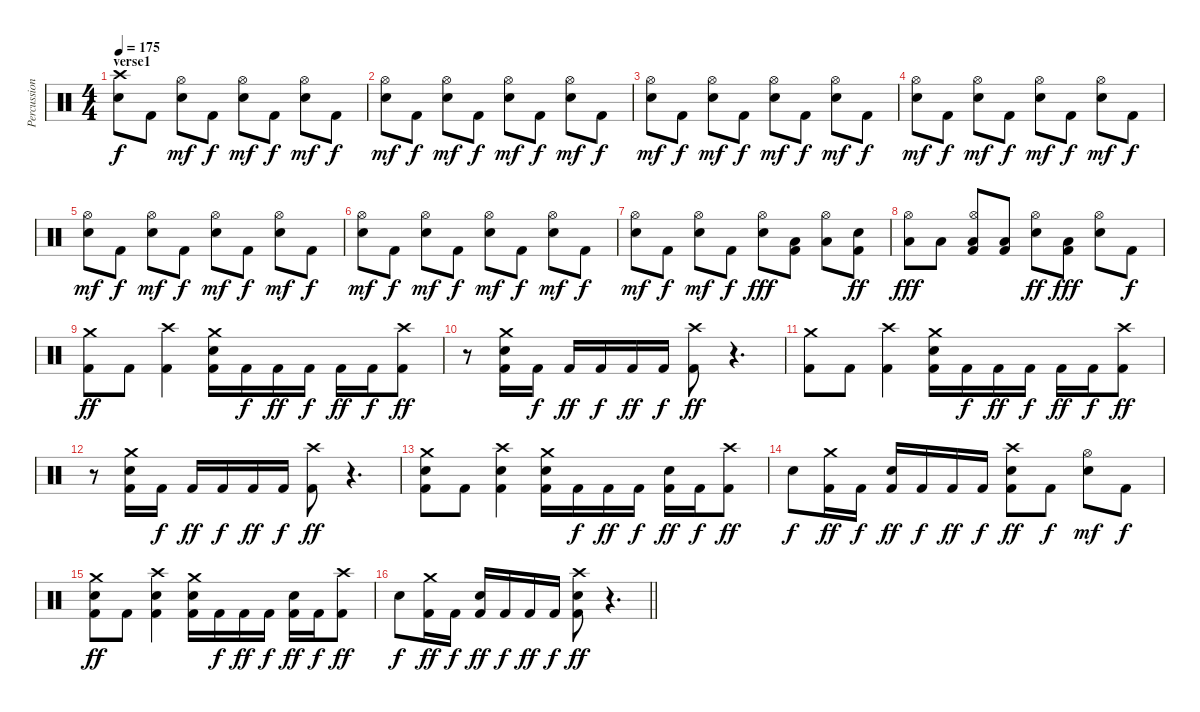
\track ("Percussion" "Percussion") {instrument percussion}
\staff {score}
\articulation defaults
\ts (4 4)
\section ("" "verse1")
\tempo 175
\clef neutral
\ks c
("Crash high (hit)" "Electric Snare (hit)").8{dy f} "Kick (hit) 2".8 ("Hi-Hat (open)" "Electric Snare (hit)").8{dy mf} "Kick (hit) 2".8{dy f} ("Hi-Hat (open)" "Electric Snare (hit)").8{dy mf} "Kick (hit) 2".8{dy f} ("Hi-Hat (open)" "Electric Snare (hit)").8{dy mf} "Kick (hit) 2".8{dy f} |
("Hi-Hat (open)" "Electric Snare (hit)").8{dy mf} "Kick (hit) 2".8{dy f} ("Hi-Hat (open)" "Electric Snare (hit)").8{dy mf} "Kick (hit) 2".8{dy f} ("Hi-Hat (open)" "Electric Snare (hit)").8{dy mf} "Kick (hit) 2".8{dy f} ("Hi-Hat (open)" "Electric Snare (hit)").8{dy mf} "Kick (hit) 2".8{dy f} |
("Hi-Hat (open)" "Electric Snare (hit)").8{dy mf} "Kick (hit) 2".8{dy f} ("Hi-Hat (open)" "Electric Snare (hit)").8{dy mf} "Kick (hit) 2".8{dy f} ("Hi-Hat (open)" "Electric Snare (hit)").8{dy mf} "Kick (hit) 2".8{dy f} ("Hi-Hat (open)" "Electric Snare (hit)").8{dy mf} "Kick (hit) 2".8{dy f} |
("Hi-Hat (open)" "Electric Snare (hit)").8{dy mf} "Kick (hit) 2".8{dy f} ("Hi-Hat (open)" "Electric Snare (hit)").8{dy mf} "Kick (hit) 2".8{dy f} ("Hi-Hat (open)" "Electric Snare (hit)").8{dy mf} "Kick (hit) 2".8{dy f} ("Hi-Hat (open)" "Electric Snare (hit)").8{dy mf} "Kick (hit) 2".8{dy f} |
("Hi-Hat (open)" "Electric Snare (hit)").8{dy mf} "Kick (hit) 2".8{dy f} ("Hi-Hat (open)" "Electric Snare (hit)").8{dy mf} "Kick (hit) 2".8{dy f} ("Hi-Hat (open)" "Electric Snare (hit)").8{dy mf} "Kick (hit) 2".8{dy f} ("Hi-Hat (open)" "Electric Snare (hit)").8{dy mf} "Kick (hit) 2".8{dy f} |
("Hi-Hat (open)" "Electric Snare (hit)").8{dy mf} "Kick (hit) 2".8{dy f} ("Hi-Hat (open)" "Electric Snare (hit)").8{dy mf} "Kick (hit) 2".8{dy f} ("Hi-Hat (open)" "Electric Snare (hit)").8{dy mf} "Kick (hit) 2".8{dy f} ("Hi-Hat (open)" "Electric Snare (hit)").8{dy mf} "Kick (hit) 2".8{dy f} |
("Hi-Hat (open)" "Electric Snare (hit)").8{dy mf} "Kick (hit) 2".8{dy f} ("Hi-Hat (open)" "Electric Snare (hit)").8{dy mf} "Kick (hit) 2".8{dy f} ("Hi-Hat (open)" "Electric Snare (hit)").8{dy fff} ("Low Floor Tom (hit)" "Kick (hit) 2").8 ("Hi-Hat (open)" "Low Floor Tom (hit)").8 ("Electric Snare (hit)" "Kick (hit) 2").8{dy ff} |
("Hi-Hat (open)" "Low Floor Tom (hit)").8{dy fff} "Low Floor Tom (hit)".8 ("Hi-Hat (open)" "Low Floor Tom (hit)" "Kick (hit) 2").8 ("Low Floor Tom (hit)" "Kick (hit) 2").8 ("Hi-Hat (open)" "Electric Snare (hit)").8{dy ff} ("Low Floor Tom (hit)" "Kick (hit) 2").8{dy fff} ("Hi-Hat (open)" "Electric Snare (hit)").8 "Kick (hit) 2".8{dy f} |
("Crash medium (hit)" "Kick (hit) 2").8{dy ff} "Kick (hit) 2".8 ("Crash high (hit)" "Kick (hit) 2").4 ("Crash medium (hit)" "Electric Snare (hit)" "Kick (hit) 2").16 "Kick (hit) 2".16{dy f} "Kick (hit) 2".16{dy ff} "Kick (hit) 2".16{dy f} "Kick (hit) 2".16{dy ff} "Kick (hit) 2".16{dy f} ("Crash high (hit)" "Kick (hit) 2").8{dy ff} |
r.8 ("Crash medium (hit)" "Electric Snare (hit)" "Kick (hit) 2").16 "Kick (hit) 2".16{dy f} "Kick (hit) 2".16{dy ff} "Kick (hit) 2".16{dy f} "Kick (hit) 2".16{dy ff} "Kick (hit) 2".16{dy f} ("Crash high (hit)" "Kick (hit) 2").8{dy ff} r.4{d} |
("Crash medium (hit)" "Kick (hit) 2").8 "Kick (hit) 2".8 ("Crash high (hit)" "Kick (hit) 2").4 ("Crash medium (hit)" "Electric Snare (hit)" "Kick (hit) 2").16 "Kick (hit) 2".16{dy f} "Kick (hit) 2".16{dy ff} "Kick (hit) 2".16{dy f} "Kick (hit) 2".16{dy ff} "Kick (hit) 2".16{dy f} ("Crash high (hit)" "Kick (hit) 2").8{dy ff} |
r.8 ("Crash medium (hit)" "Electric Snare (hit)" "Kick (hit) 2").16 "Kick (hit) 2".16{dy f} "Kick (hit) 2".16{dy ff} "Kick (hit) 2".16{dy f} "Kick (hit) 2".16{dy ff} "Kick (hit) 2".16{dy f} ("Crash high (hit)" "Kick (hit) 2").8{dy ff} r.4{d} |
("Crash medium (hit)" "Electric Snare (hit)" "Kick (hit) 2").8 "Kick (hit) 2".8 ("Crash high (hit)" "Electric Snare (hit)" "Kick (hit) 2").4 ("Crash medium (hit)" "Electric Snare (hit)" "Kick (hit) 2").16 "Kick (hit) 2".16{dy f} "Kick (hit) 2".16{dy ff} "Kick (hit) 2".16{dy f} ("Electric Snare (hit)" "Kick (hit) 2").16{dy ff} "Kick (hit) 2".16{dy f} ("Crash high (hit)" "Kick (hit) 2").8{dy ff} |
"Electric Snare (hit)".8{dy f} ("Crash medium (hit)" "Kick (hit) 2").16{dy ff} "Kick (hit) 2".16{dy f} ("Electric Snare (hit)" "Kick (hit) 2").16{dy ff} "Kick (hit) 2".16{dy f} "Kick (hit) 2".16{dy ff} "Kick (hit) 2".16{dy f} ("Crash high (hit)" "Electric Snare (hit)" "Kick (hit) 2").8{dy ff} "Kick (hit) 2".8{dy f} ("Hi-Hat (open)" "Electric Snare (hit)").8{dy mf} "Kick (hit) 2".8{dy f} |
("Crash medium (hit)" "Electric Snare (hit)" "Kick (hit) 2").8{dy ff} "Kick (hit) 2".8 ("Crash high (hit)" "Electric Snare (hit)" "Kick (hit) 2").4 ("Crash medium (hit)" "Electric Snare (hit)" "Kick (hit) 2").16 "Kick (hit) 2".16{dy f} "Kick (hit) 2".16{dy ff} "Kick (hit) 2".16{dy f} ("Electric Snare (hit)" "Kick (hit) 2").16{dy ff} "Kick (hit) 2".16{dy f} ("Crash high (hit)" "Kick (hit) 2").8{dy ff} |
\barLineRight lightlight "Electric Snare (hit)".8{dy f}
("Crash medium (hit)" "Kick (hit) 2").16{dy ff} "Kick (hit) 2".16{dy f} ("Electric Snare (hit)" "Kick (hit) 2").16{dy ff} "Kick (hit) 2".16{dy f} "Kick (hit) 2".16{dy ff} "Kick (hit) 2".16{dy f} ("Crash high (hit)" "Electric Snare (hit)" "Kick (hit) 2").8{dy ff} r.4{d}
